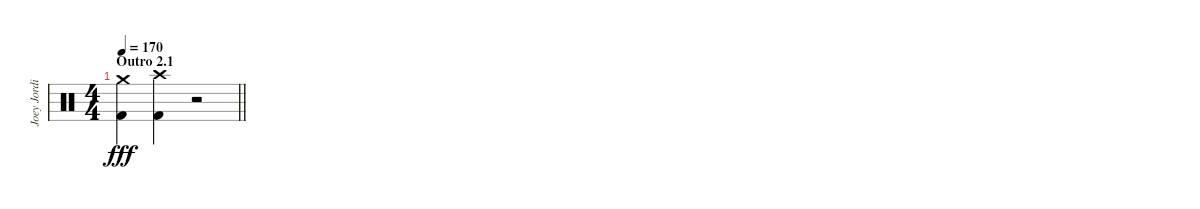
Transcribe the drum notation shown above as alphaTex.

\track ("Joey Jordison" "Joey Jordi") {instrument percussion}
\staff {score}
\articulation defaults
\ts (4 4)
\section ("" "Outro 2.1")
\tempo 170
\clef neutral
\barLineRight lightlight
\ks c
("Crash medium (hit)" "Kick (hit) 2").4{dy fff} ("Crash high (hit)" "Kick (hit) 2").4 r.2
